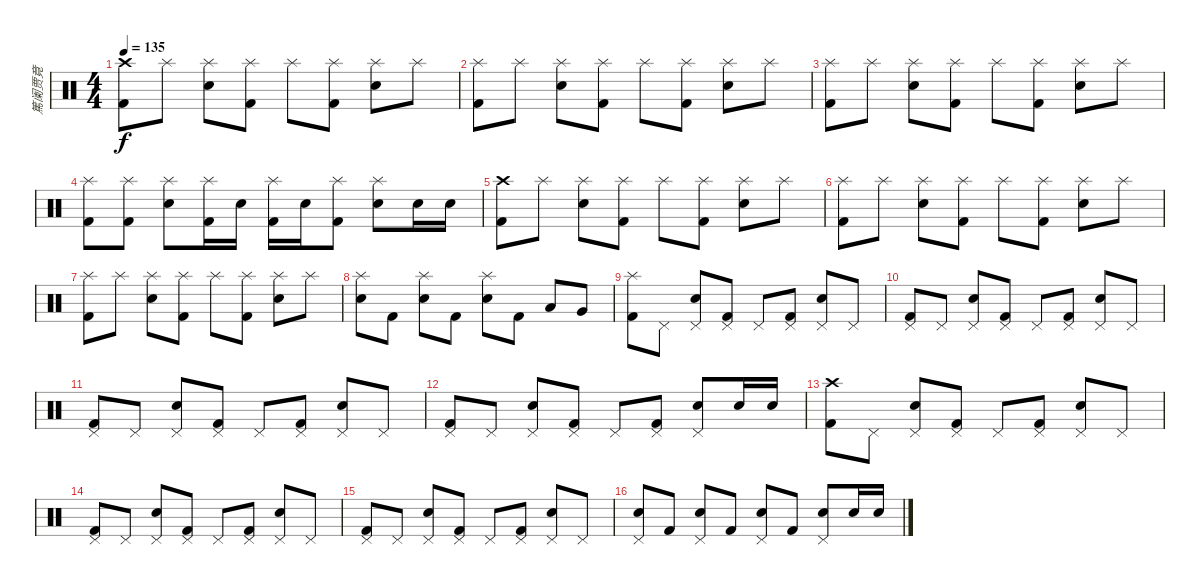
\track ("篤阑贾竟" "篤阑贾竟") {instrument percussion}
\staff {score}
\articulation defaults
\ts (4 4)
\tempo 135
\clef neutral
\ks c
("Crash high (hit)" "Kick (hit) 2").8{dy f} "Splash (hit)".8 ("Splash (hit)" "Electric Snare (hit)").8 ("Splash (hit)" "Kick (hit) 2").8 "Splash (hit)".8 ("Splash (hit)" "Kick (hit) 2").8 ("Splash (hit)" "Electric Snare (hit)").8 "Splash (hit)".8 |
("Splash (hit)" "Kick (hit) 2").8 "Splash (hit)".8 ("Splash (hit)" "Electric Snare (hit)").8 ("Splash (hit)" "Kick (hit) 2").8 "Splash (hit)".8 ("Splash (hit)" "Kick (hit) 2").8 ("Splash (hit)" "Electric Snare (hit)").8 "Splash (hit)".8 |
("Splash (hit)" "Kick (hit) 2").8 "Splash (hit)".8 ("Splash (hit)" "Electric Snare (hit)").8 ("Splash (hit)" "Kick (hit) 2").8 "Splash (hit)".8 ("Splash (hit)" "Kick (hit) 2").8 ("Splash (hit)" "Electric Snare (hit)").8 "Splash (hit)".8 |
("Splash (hit)" "Kick (hit) 2").8 ("Splash (hit)" "Kick (hit) 2").8 ("Splash (hit)" "Electric Snare (hit)").8 ("Splash (hit)" "Kick (hit) 2").16 "Electric Snare (hit)".16 ("Splash (hit)" "Kick (hit) 2").16 "Electric Snare (hit)".16 ("Splash (hit)" "Kick (hit) 2").8 ("Splash (hit)" "Electric Snare (hit)").8 "Electric Snare (hit)".16 "Electric Snare (hit)".16 |
("Crash high (hit)" "Kick (hit) 2").8 "Splash (hit)".8 ("Splash (hit)" "Electric Snare (hit)").8 ("Splash (hit)" "Kick (hit) 2").8 "Splash (hit)".8 ("Splash (hit)" "Kick (hit) 2").8 ("Splash (hit)" "Electric Snare (hit)").8 "Splash (hit)".8 |
("Splash (hit)" "Kick (hit) 2").8 "Splash (hit)".8 ("Splash (hit)" "Electric Snare (hit)").8 ("Splash (hit)" "Kick (hit) 2").8 "Splash (hit)".8 ("Splash (hit)" "Kick (hit) 2").8 ("Splash (hit)" "Electric Snare (hit)").8 "Splash (hit)".8 |
("Splash (hit)" "Kick (hit) 2").8 "Splash (hit)".8 ("Splash (hit)" "Electric Snare (hit)").8 ("Splash (hit)" "Kick (hit) 2").8 "Splash (hit)".8 ("Splash (hit)" "Kick (hit) 2").8 ("Splash (hit)" "Electric Snare (hit)").8 "Splash (hit)".8 |
("Splash (hit)" "Electric Snare (hit)").8 "Kick (hit) 2".8 ("Splash (hit)" "Electric Snare (hit)").8 "Kick (hit) 2".8 ("Splash (hit)" "Electric Snare (hit)").8 "Kick (hit) 2".8 "Low Tom (hit)".8 "Very Low Tom (hit)".8 |
("Splash (hit)" "Kick (hit) 2").8 "Pedal Hi-Hat (hit)".8 ("Pedal Hi-Hat (hit)" "Electric Snare (hit)").8 ("Pedal Hi-Hat (hit)" "Kick (hit) 2").8 "Pedal Hi-Hat (hit)".8 ("Pedal Hi-Hat (hit)" "Kick (hit) 2").8 ("Pedal Hi-Hat (hit)" "Electric Snare (hit)").8 "Pedal Hi-Hat (hit)".8 |
("Pedal Hi-Hat (hit)" "Kick (hit) 2").8 "Pedal Hi-Hat (hit)".8 ("Pedal Hi-Hat (hit)" "Electric Snare (hit)").8 ("Pedal Hi-Hat (hit)" "Kick (hit) 2").8 "Pedal Hi-Hat (hit)".8 ("Pedal Hi-Hat (hit)" "Kick (hit) 2").8 ("Pedal Hi-Hat (hit)" "Electric Snare (hit)").8 "Pedal Hi-Hat (hit)".8 |
("Pedal Hi-Hat (hit)" "Kick (hit) 2").8 "Pedal Hi-Hat (hit)".8 ("Pedal Hi-Hat (hit)" "Electric Snare (hit)").8 ("Pedal Hi-Hat (hit)" "Kick (hit) 2").8 "Pedal Hi-Hat (hit)".8 ("Pedal Hi-Hat (hit)" "Kick (hit) 2").8 ("Pedal Hi-Hat (hit)" "Electric Snare (hit)").8 "Pedal Hi-Hat (hit)".8 |
("Pedal Hi-Hat (hit)" "Kick (hit) 2").8 "Pedal Hi-Hat (hit)".8 ("Pedal Hi-Hat (hit)" "Electric Snare (hit)").8 ("Pedal Hi-Hat (hit)" "Kick (hit) 2").8 "Pedal Hi-Hat (hit)".8 ("Pedal Hi-Hat (hit)" "Kick (hit) 2").8 ("Pedal Hi-Hat (hit)" "Electric Snare (hit)").8 "Electric Snare (hit)".16 "Electric Snare (hit)".16 |
("Crash high (hit)" "Kick (hit) 2").8 "Pedal Hi-Hat (hit)".8 ("Pedal Hi-Hat (hit)" "Electric Snare (hit)").8 ("Pedal Hi-Hat (hit)" "Kick (hit) 2").8 "Pedal Hi-Hat (hit)".8 ("Pedal Hi-Hat (hit)" "Kick (hit) 2").8 ("Pedal Hi-Hat (hit)" "Electric Snare (hit)").8 "Pedal Hi-Hat (hit)".8 |
("Pedal Hi-Hat (hit)" "Kick (hit) 2").8 "Pedal Hi-Hat (hit)".8 ("Pedal Hi-Hat (hit)" "Electric Snare (hit)").8 ("Pedal Hi-Hat (hit)" "Kick (hit) 2").8 "Pedal Hi-Hat (hit)".8 ("Pedal Hi-Hat (hit)" "Kick (hit) 2").8 ("Pedal Hi-Hat (hit)" "Electric Snare (hit)").8 "Pedal Hi-Hat (hit)".8 |
("Pedal Hi-Hat (hit)" "Kick (hit) 2").8 "Pedal Hi-Hat (hit)".8 ("Pedal Hi-Hat (hit)" "Electric Snare (hit)").8 ("Pedal Hi-Hat (hit)" "Kick (hit) 2").8 "Pedal Hi-Hat (hit)".8 ("Pedal Hi-Hat (hit)" "Kick (hit) 2").8 ("Pedal Hi-Hat (hit)" "Electric Snare (hit)").8 "Pedal Hi-Hat (hit)".8 |
("Pedal Hi-Hat (hit)" "Electric Snare (hit)").8 "Kick (hit) 2".8 ("Pedal Hi-Hat (hit)" "Electric Snare (hit)").8 "Kick (hit) 2".8 ("Pedal Hi-Hat (hit)" "Electric Snare (hit)").8 "Kick (hit) 2".8 ("Pedal Hi-Hat (hit)" "Electric Snare (hit)").8 "Electric Snare (hit)".16 "Electric Snare (hit)".16
